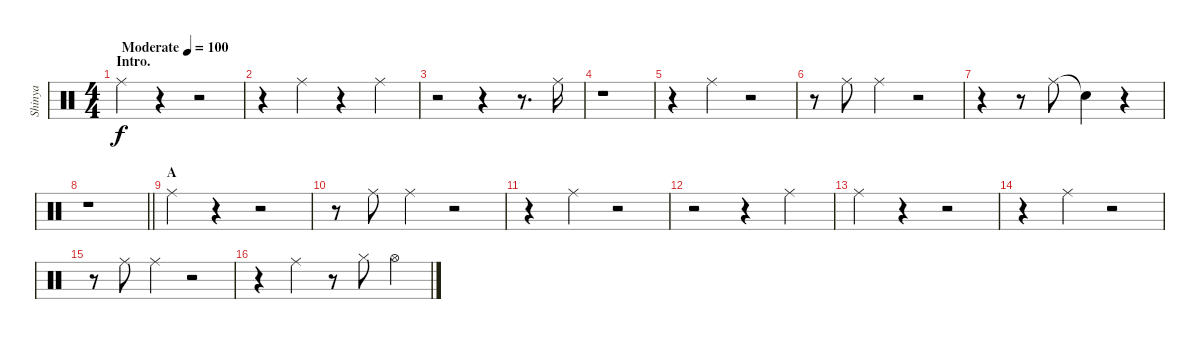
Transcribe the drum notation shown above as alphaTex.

\track ("Shinya" "Shinya") {instrument percussion}
\staff {score}
\articulation defaults
\ts (4 4)
\section ("" "Intro.")
\tempo (100 "Moderate")
\clef neutral
\ks c "Ride (middle)".4{dy f}
r.4 r.2 |
r.4 "Ride (middle)".4 r.4 "Ride (middle)".4 |
r.2 r.4 r.8{d} "Ride (middle)".16 |
r.1 |
r.4 "Ride (middle)".4 r.2 |
r.8 "Ride (middle)".8 "Ride (middle)".4 r.2 |
r.4 r.8 "Ride (middle)".8 "Snare (hit)"{t}.4 r.4 |
\barLineRight lightlight
r.1 |
\section ("" "A")
"Ride (middle)".4 r.4 r.2 |
r.8 "Ride (middle)".8 "Ride (middle)".4 r.2 |
r.4 "Ride (middle)".4 r.2 |
r.2 r.4 "Ride (middle)".4 |
"Ride (middle)".4 r.4 r.2 |
r.4 "Ride (middle)".4 r.2 |
r.8 "Ride (middle)".8 "Ride (middle)".4 r.2 |
r.4 "Ride (middle)".4 r.8 "Hi-Hat (closed)".8 "Hi-Hat (open)".4
